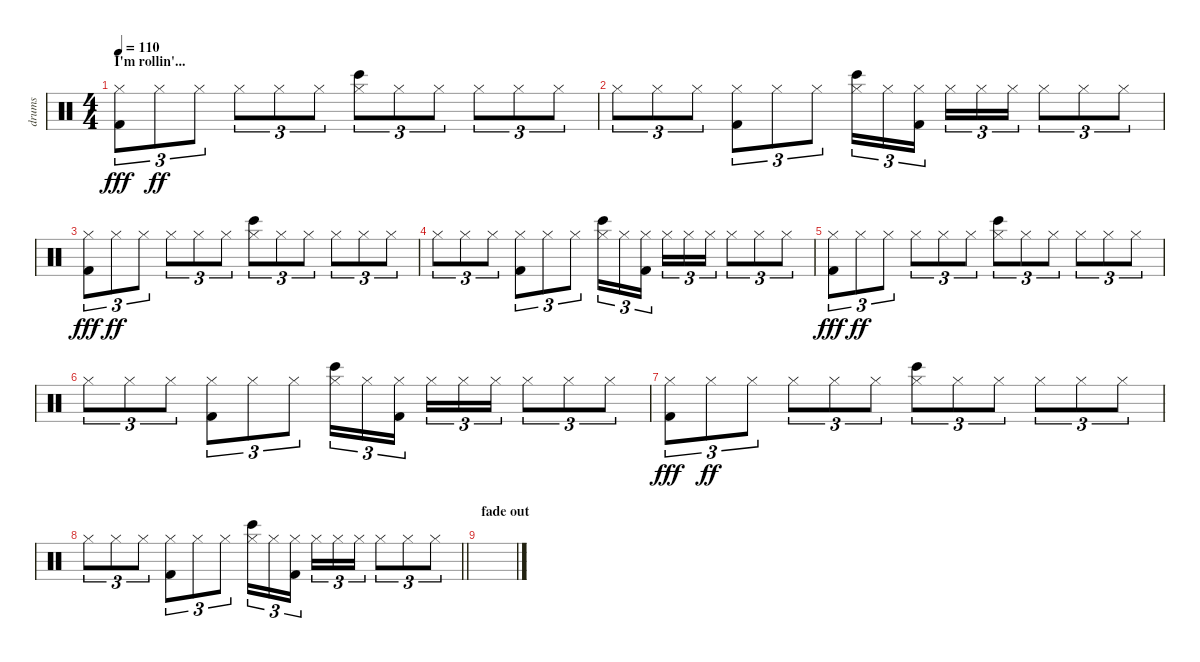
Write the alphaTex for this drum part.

\track ("drums" "drums") {instrument percussion}
\staff {score}
\articulation defaults
\ts (4 4)
\section ("" "I'm rollin'...")
\tempo 110
\clef neutral
\ks c
("Hi-Hat (closed)" "Kick (hit) 2").8{tu (3 2) dy fff} "Hi-Hat (closed)".8{tu (3 2) dy ff} "Hi-Hat (closed)".8{tu (3 2)} "Hi-Hat (closed)".8{tu (3 2)} "Hi-Hat (closed)".8{tu (3 2)} "Hi-Hat (closed)".8{tu (3 2)} ("Hi-Hat (closed)" "Bongo High (hit)").8{tu (3 2)} "Hi-Hat (closed)".8{tu (3 2)} "Hi-Hat (closed)".8{tu (3 2)} "Hi-Hat (closed)".8{tu (3 2)} "Hi-Hat (closed)".8{tu (3 2)} "Hi-Hat (closed)".8{tu (3 2)} |
"Hi-Hat (closed)".8{tu (3 2)} "Hi-Hat (closed)".8{tu (3 2)} "Hi-Hat (closed)".8{tu (3 2)} ("Hi-Hat (closed)" "Kick (hit) 2").8{tu (3 2)} "Hi-Hat (closed)".8{tu (3 2)} "Hi-Hat (closed)".8{tu (3 2)} ("Hi-Hat (closed)" "Bongo High (hit)").16{tu (3 2)} "Hi-Hat (closed)".16{tu (3 2)} ("Hi-Hat (closed)" "Kick (hit) 2").16{tu (3 2) beam splitsecondary} "Hi-Hat (closed)".16{tu (3 2)} "Hi-Hat (closed)".16{tu (3 2)} "Hi-Hat (closed)".16{tu (3 2)} "Hi-Hat (closed)".8{tu (3 2)} "Hi-Hat (closed)".8{tu (3 2)} "Hi-Hat (closed)".8{tu (3 2)} |
("Hi-Hat (closed)" "Kick (hit) 2").8{tu (3 2) dy fff} "Hi-Hat (closed)".8{tu (3 2) dy ff} "Hi-Hat (closed)".8{tu (3 2)} "Hi-Hat (closed)".8{tu (3 2)} "Hi-Hat (closed)".8{tu (3 2)} "Hi-Hat (closed)".8{tu (3 2)} ("Hi-Hat (closed)" "Bongo High (hit)").8{tu (3 2)} "Hi-Hat (closed)".8{tu (3 2)} "Hi-Hat (closed)".8{tu (3 2)} "Hi-Hat (closed)".8{tu (3 2)} "Hi-Hat (closed)".8{tu (3 2)} "Hi-Hat (closed)".8{tu (3 2)} |
"Hi-Hat (closed)".8{tu (3 2)} "Hi-Hat (closed)".8{tu (3 2)} "Hi-Hat (closed)".8{tu (3 2)} ("Hi-Hat (closed)" "Kick (hit) 2").8{tu (3 2)} "Hi-Hat (closed)".8{tu (3 2)} "Hi-Hat (closed)".8{tu (3 2)} ("Hi-Hat (closed)" "Bongo High (hit)").16{tu (3 2)} "Hi-Hat (closed)".16{tu (3 2)} ("Hi-Hat (closed)" "Kick (hit) 2").16{tu (3 2) beam splitsecondary} "Hi-Hat (closed)".16{tu (3 2)} "Hi-Hat (closed)".16{tu (3 2)} "Hi-Hat (closed)".16{tu (3 2)} "Hi-Hat (closed)".8{tu (3 2)} "Hi-Hat (closed)".8{tu (3 2)} "Hi-Hat (closed)".8{tu (3 2)} |
("Hi-Hat (closed)" "Kick (hit) 2").8{tu (3 2) dy fff} "Hi-Hat (closed)".8{tu (3 2) dy ff} "Hi-Hat (closed)".8{tu (3 2)} "Hi-Hat (closed)".8{tu (3 2)} "Hi-Hat (closed)".8{tu (3 2)} "Hi-Hat (closed)".8{tu (3 2)} ("Hi-Hat (closed)" "Bongo High (hit)").8{tu (3 2)} "Hi-Hat (closed)".8{tu (3 2)} "Hi-Hat (closed)".8{tu (3 2)} "Hi-Hat (closed)".8{tu (3 2)} "Hi-Hat (closed)".8{tu (3 2)} "Hi-Hat (closed)".8{tu (3 2)} |
"Hi-Hat (closed)".8{tu (3 2)} "Hi-Hat (closed)".8{tu (3 2)} "Hi-Hat (closed)".8{tu (3 2)} ("Hi-Hat (closed)" "Kick (hit) 2").8{tu (3 2)} "Hi-Hat (closed)".8{tu (3 2)} "Hi-Hat (closed)".8{tu (3 2)} ("Hi-Hat (closed)" "Bongo High (hit)").16{tu (3 2)} "Hi-Hat (closed)".16{tu (3 2)} ("Hi-Hat (closed)" "Kick (hit) 2").16{tu (3 2) beam splitsecondary} "Hi-Hat (closed)".16{tu (3 2)} "Hi-Hat (closed)".16{tu (3 2)} "Hi-Hat (closed)".16{tu (3 2)} "Hi-Hat (closed)".8{tu (3 2)} "Hi-Hat (closed)".8{tu (3 2)} "Hi-Hat (closed)".8{tu (3 2)} |
("Hi-Hat (closed)" "Kick (hit) 2").8{tu (3 2) dy fff} "Hi-Hat (closed)".8{tu (3 2) dy ff} "Hi-Hat (closed)".8{tu (3 2)} "Hi-Hat (closed)".8{tu (3 2)} "Hi-Hat (closed)".8{tu (3 2)} "Hi-Hat (closed)".8{tu (3 2)} ("Hi-Hat (closed)" "Bongo High (hit)").8{tu (3 2)} "Hi-Hat (closed)".8{tu (3 2)} "Hi-Hat (closed)".8{tu (3 2)} "Hi-Hat (closed)".8{tu (3 2)} "Hi-Hat (closed)".8{tu (3 2)} "Hi-Hat (closed)".8{tu (3 2)} |
\barLineRight lightlight "Hi-Hat (closed)".8{tu (3 2)} "Hi-Hat (closed)".8{tu (3 2)} "Hi-Hat (closed)".8{tu (3 2)}
("Hi-Hat (closed)" "Kick (hit) 2").8{tu (3 2)} "Hi-Hat (closed)".8{tu (3 2)} "Hi-Hat (closed)".8{tu (3 2)} ("Hi-Hat (closed)" "Bongo High (hit)").16{tu (3 2)} "Hi-Hat (closed)".16{tu (3 2)} ("Hi-Hat (closed)" "Kick (hit) 2").16{tu (3 2) beam splitsecondary} "Hi-Hat (closed)".16{tu (3 2)} "Hi-Hat (closed)".16{tu (3 2)} "Hi-Hat (closed)".16{tu (3 2)} "Hi-Hat (closed)".8{tu (3 2)} "Hi-Hat (closed)".8{tu (3 2)} "Hi-Hat (closed)".8{tu (3 2)} |
\section ("" "fade out")
